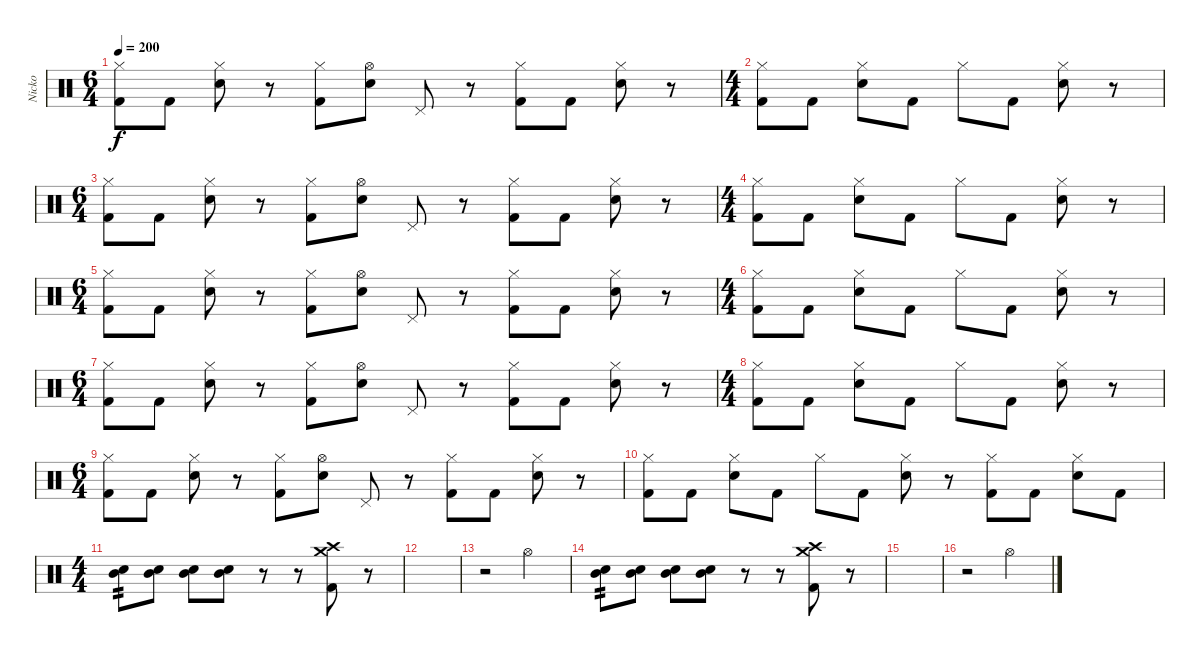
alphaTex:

\track ("Nicko" "Nicko") {instrument percussion}
\staff {score}
\articulation defaults
\ts (6 4)
\tempo 200
\clef neutral
\ks c
("Hi-Hat (closed)" "Kick (hit) 2").8{dy f} "Kick (hit) 2".8 ("Hi-Hat (closed)" "Electric Snare (hit)").8 r.8 ("Hi-Hat (closed)" "Kick (hit) 2").8 ("Hi-Hat (open)" "Electric Snare (hit)").8 "Pedal Hi-Hat (hit)".8 r.8 ("Hi-Hat (closed)" "Kick (hit) 2").8 "Kick (hit) 2".8 ("Hi-Hat (closed)" "Electric Snare (hit)").8 r.8 |
\ts (4 4)
("Hi-Hat (closed)" "Kick (hit) 2").8 "Kick (hit) 2".8 ("Hi-Hat (closed)" "Electric Snare (hit)").8 "Kick (hit) 2".8 "Hi-Hat (closed)".8 "Kick (hit) 2".8 ("Hi-Hat (closed)" "Electric Snare (hit)").8 r.8 |
\ts (6 4)
("Hi-Hat (closed)" "Kick (hit) 2").8 "Kick (hit) 2".8 ("Hi-Hat (closed)" "Electric Snare (hit)").8 r.8 ("Hi-Hat (closed)" "Kick (hit) 2").8 ("Hi-Hat (open)" "Electric Snare (hit)").8 "Pedal Hi-Hat (hit)".8 r.8 ("Hi-Hat (closed)" "Kick (hit) 2").8 "Kick (hit) 2".8 ("Hi-Hat (closed)" "Electric Snare (hit)").8 r.8 |
\ts (4 4)
("Hi-Hat (closed)" "Kick (hit) 2").8 "Kick (hit) 2".8 ("Hi-Hat (closed)" "Electric Snare (hit)").8 "Kick (hit) 2".8 "Hi-Hat (closed)".8 "Kick (hit) 2".8 ("Hi-Hat (closed)" "Electric Snare (hit)").8 r.8 |
\ts (6 4)
("Hi-Hat (closed)" "Kick (hit) 2").8 "Kick (hit) 2".8 ("Hi-Hat (closed)" "Electric Snare (hit)").8 r.8 ("Hi-Hat (closed)" "Kick (hit) 2").8 ("Hi-Hat (open)" "Electric Snare (hit)").8 "Pedal Hi-Hat (hit)".8 r.8 ("Hi-Hat (closed)" "Kick (hit) 2").8 "Kick (hit) 2".8 ("Hi-Hat (closed)" "Electric Snare (hit)").8 r.8 |
\ts (4 4)
("Hi-Hat (closed)" "Kick (hit) 2").8 "Kick (hit) 2".8 ("Hi-Hat (closed)" "Electric Snare (hit)").8 "Kick (hit) 2".8 "Hi-Hat (closed)".8 "Kick (hit) 2".8 ("Hi-Hat (closed)" "Electric Snare (hit)").8 r.8 |
\ts (6 4)
("Hi-Hat (closed)" "Kick (hit) 2").8 "Kick (hit) 2".8 ("Hi-Hat (closed)" "Electric Snare (hit)").8 r.8 ("Hi-Hat (closed)" "Kick (hit) 2").8 ("Hi-Hat (open)" "Electric Snare (hit)").8 "Pedal Hi-Hat (hit)".8 r.8 ("Hi-Hat (closed)" "Kick (hit) 2").8 "Kick (hit) 2".8 ("Hi-Hat (closed)" "Electric Snare (hit)").8 r.8 |
\ts (4 4)
("Hi-Hat (closed)" "Kick (hit) 2").8 "Kick (hit) 2".8 ("Hi-Hat (closed)" "Electric Snare (hit)").8 "Kick (hit) 2".8 "Hi-Hat (closed)".8 "Kick (hit) 2".8 ("Hi-Hat (closed)" "Electric Snare (hit)").8 r.8 |
\ts (6 4)
("Hi-Hat (closed)" "Kick (hit) 2").8 "Kick (hit) 2".8 ("Hi-Hat (closed)" "Electric Snare (hit)").8 r.8 ("Hi-Hat (closed)" "Kick (hit) 2").8 ("Hi-Hat (open)" "Electric Snare (hit)").8 "Pedal Hi-Hat (hit)".8 r.8 ("Hi-Hat (closed)" "Kick (hit) 2").8 "Kick (hit) 2".8 ("Hi-Hat (closed)" "Electric Snare (hit)").8 r.8 |
("Hi-Hat (closed)" "Kick (hit) 2").8 "Kick (hit) 2".8 ("Hi-Hat (closed)" "Electric Snare (hit)").8 "Kick (hit) 2".8 "Hi-Hat (closed)".8 "Kick (hit) 2".8 ("Hi-Hat (closed)" "Electric Snare (hit)").8 r.8 ("Hi-Hat (closed)" "Kick (hit) 2").8 "Kick (hit) 2".8 ("Hi-Hat (closed)" "Electric Snare (hit)").8 "Kick (hit) 2".8 |
\ts (4 4)
("Mid Tom (hit)" "Electric Snare (hit)").8{tp 2} ("Mid Tom (hit)" "Electric Snare (hit)").8 ("Mid Tom (hit)" "Electric Snare (hit)").8 ("Mid Tom (hit)" "Electric Snare (hit)").8 r.8 r.8 ("Crash medium (hit)" "Crash high (hit)" "Kick (hit) 2").8 r.8 |
|
r.2 "Hi-Hat (open)".2 |
("Mid Tom (hit)" "Electric Snare (hit)").8{tp 2} ("Mid Tom (hit)" "Electric Snare (hit)").8 ("Mid Tom (hit)" "Electric Snare (hit)").8 ("Mid Tom (hit)" "Electric Snare (hit)").8 r.8 r.8 ("Crash medium (hit)" "Crash high (hit)" "Kick (hit) 2").8 r.8 |
|
r.2 "Hi-Hat (open)".2
